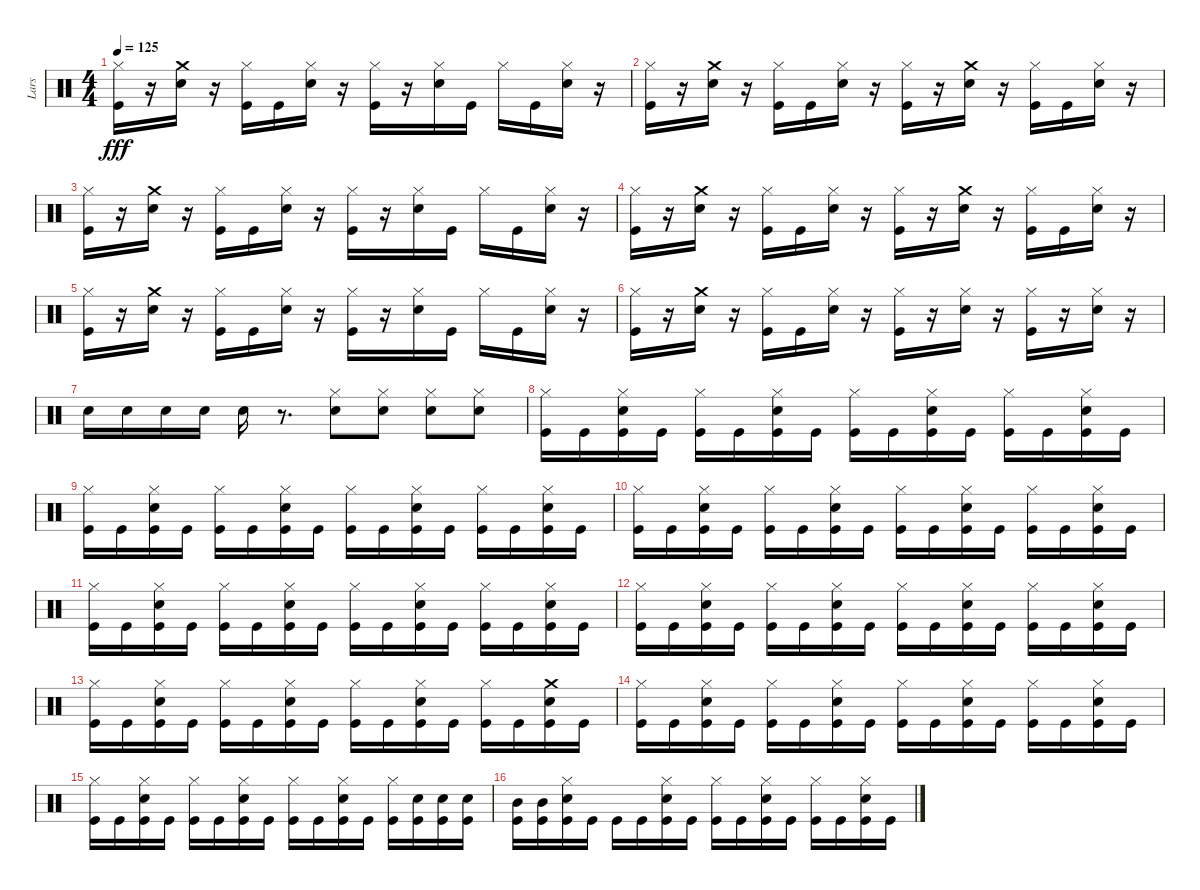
\track ("Lars" "Lars") {instrument percussion bank 102}
\staff {score}
\articulation defaults
\ts (4 4)
\tempo 125
\clef neutral
\ks c
("Hi-Hat (closed)" "Kick (hit)").16{dy fff} r.16 ("Crash medium (hit)" "Snare (hit) 2").16 r.16 ("Kick (hit)" "Hi-Hat (closed)").16 "Kick (hit)".16 ("Snare (hit) 2" "Hi-Hat (closed)").16 r.16 ("Hi-Hat (closed)" "Kick (hit)").16 r.16 ("Snare (hit) 2" "Hi-Hat (closed)").16 "Kick (hit)".16 "Hi-Hat (closed)".16 "Kick (hit)".16 ("Hi-Hat (closed)" "Snare (hit) 2").16 r.16 |
("Hi-Hat (closed)" "Kick (hit)").16 r.16 ("Crash medium (hit)" "Snare (hit) 2").16 r.16 ("Kick (hit)" "Hi-Hat (closed)").16 "Kick (hit)".16 ("Snare (hit) 2" "Hi-Hat (closed)").16 r.16 ("Hi-Hat (closed)" "Kick (hit)").16 r.16 ("Crash medium (hit)" "Snare (hit) 2").16 r.16 ("Hi-Hat (closed)" "Kick (hit)").16 "Kick (hit)".16 ("Hi-Hat (closed)" "Snare (hit) 2").16 r.16 |
("Hi-Hat (closed)" "Kick (hit)").16 r.16 ("Crash medium (hit)" "Snare (hit) 2").16 r.16 ("Kick (hit)" "Hi-Hat (closed)").16 "Kick (hit)".16 ("Snare (hit) 2" "Hi-Hat (closed)").16 r.16 ("Hi-Hat (closed)" "Kick (hit)").16 r.16 ("Snare (hit) 2" "Hi-Hat (closed)").16 "Kick (hit)".16 "Hi-Hat (closed)".16 "Kick (hit)".16 ("Hi-Hat (closed)" "Snare (hit) 2").16 r.16 |
("Hi-Hat (closed)" "Kick (hit)").16 r.16 ("Crash medium (hit)" "Snare (hit) 2").16 r.16 ("Kick (hit)" "Hi-Hat (closed)").16 "Kick (hit)".16 ("Snare (hit) 2" "Hi-Hat (closed)").16 r.16 ("Hi-Hat (closed)" "Kick (hit)").16 r.16 ("Crash medium (hit)" "Snare (hit) 2").16 r.16 ("Hi-Hat (closed)" "Kick (hit)").16 "Kick (hit)".16 ("Hi-Hat (closed)" "Snare (hit) 2").16 r.16 |
("Hi-Hat (closed)" "Kick (hit)").16 r.16 ("Crash medium (hit)" "Snare (hit) 2").16 r.16 ("Kick (hit)" "Hi-Hat (closed)").16 "Kick (hit)".16 ("Snare (hit) 2" "Hi-Hat (closed)").16 r.16 ("Hi-Hat (closed)" "Kick (hit)").16 r.16 ("Snare (hit) 2" "Hi-Hat (closed)").16 "Kick (hit)".16 "Hi-Hat (closed)".16 "Kick (hit)".16 ("Hi-Hat (closed)" "Snare (hit) 2").16 r.16 |
("Hi-Hat (closed)" "Kick (hit)").16 r.16 ("Crash medium (hit)" "Snare (hit) 2").16 r.16 ("Kick (hit)" "Hi-Hat (closed)").16 "Kick (hit)".16 ("Snare (hit) 2" "Hi-Hat (closed)").16 r.16 ("Hi-Hat (closed)" "Kick (hit)").16 r.16 ("Hi-Hat (closed)" "Snare (hit) 2").16 r.16 ("Hi-Hat (closed)" "Kick (hit)").16 r.16 ("Hi-Hat (closed)" "Snare (hit) 2").16 r.16 |
"Snare (hit) 2".16 "Snare (hit) 2".16 "Snare (hit) 2".16 "Snare (hit) 2".16 "Snare (hit) 2".16 r.8{d} ("Hi-Hat (closed)" "Snare (hit) 2").8 ("Hi-Hat (closed)" "Snare (hit) 2").8 ("Hi-Hat (closed)" "Snare (hit) 2").8 ("Hi-Hat (closed)" "Snare (hit) 2").8 |
("Kick (hit)" "Hi-Hat (closed)").16 "Kick (hit)".16 ("Kick (hit)" "Snare (hit) 2" "Hi-Hat (closed)").16 "Kick (hit)".16 ("Kick (hit)" "Hi-Hat (closed)").16 "Kick (hit)".16 ("Kick (hit)" "Snare (hit) 2" "Hi-Hat (closed)").16 "Kick (hit)".16 ("Kick (hit)" "Hi-Hat (closed)").16 "Kick (hit)".16 ("Kick (hit)" "Snare (hit) 2" "Hi-Hat (closed)").16 "Kick (hit)".16 ("Kick (hit)" "Hi-Hat (closed)").16 "Kick (hit)".16 ("Kick (hit)" "Snare (hit) 2" "Hi-Hat (closed)").16 "Kick (hit)".16 |
("Kick (hit)" "Hi-Hat (closed)").16 "Kick (hit)".16 ("Kick (hit)" "Snare (hit) 2" "Hi-Hat (closed)").16 "Kick (hit)".16 ("Kick (hit)" "Hi-Hat (closed)").16 "Kick (hit)".16 ("Kick (hit)" "Snare (hit) 2" "Hi-Hat (closed)").16 "Kick (hit)".16 ("Kick (hit)" "Hi-Hat (closed)").16 "Kick (hit)".16 ("Kick (hit)" "Snare (hit) 2" "Hi-Hat (closed)").16 "Kick (hit)".16 ("Kick (hit)" "Hi-Hat (closed)").16 "Kick (hit)".16 ("Kick (hit)" "Snare (hit) 2" "Hi-Hat (closed)").16 "Kick (hit)".16 |
("Kick (hit)" "Hi-Hat (closed)").16 "Kick (hit)".16 ("Kick (hit)" "Snare (hit) 2" "Hi-Hat (closed)").16 "Kick (hit)".16 ("Kick (hit)" "Hi-Hat (closed)").16 "Kick (hit)".16 ("Kick (hit)" "Snare (hit) 2" "Hi-Hat (closed)").16 "Kick (hit)".16 ("Kick (hit)" "Hi-Hat (closed)").16 "Kick (hit)".16 ("Kick (hit)" "Snare (hit) 2" "Hi-Hat (closed)").16 "Kick (hit)".16 ("Kick (hit)" "Hi-Hat (closed)").16 "Kick (hit)".16 ("Kick (hit)" "Snare (hit) 2" "Hi-Hat (closed)").16 "Kick (hit)".16 |
("Kick (hit)" "Hi-Hat (closed)").16 "Kick (hit)".16 ("Kick (hit)" "Snare (hit) 2" "Hi-Hat (closed)").16 "Kick (hit)".16 ("Kick (hit)" "Hi-Hat (closed)").16 "Kick (hit)".16 ("Kick (hit)" "Snare (hit) 2" "Hi-Hat (closed)").16 "Kick (hit)".16 ("Kick (hit)" "Hi-Hat (closed)").16 "Kick (hit)".16 ("Kick (hit)" "Snare (hit) 2" "Hi-Hat (closed)").16 "Kick (hit)".16 ("Kick (hit)" "Hi-Hat (closed)").16 "Kick (hit)".16 ("Kick (hit)" "Snare (hit) 2" "Hi-Hat (closed)").16 "Kick (hit)".16 |
("Kick (hit)" "Hi-Hat (closed)").16 "Kick (hit)".16 ("Kick (hit)" "Snare (hit) 2" "Hi-Hat (closed)").16 "Kick (hit)".16 ("Kick (hit)" "Hi-Hat (closed)").16 "Kick (hit)".16 ("Kick (hit)" "Snare (hit) 2" "Hi-Hat (closed)").16 "Kick (hit)".16 ("Kick (hit)" "Hi-Hat (closed)").16 "Kick (hit)".16 ("Kick (hit)" "Snare (hit) 2" "Hi-Hat (closed)").16 "Kick (hit)".16 ("Kick (hit)" "Hi-Hat (closed)").16 "Kick (hit)".16 ("Kick (hit)" "Snare (hit) 2" "Hi-Hat (closed)").16 "Kick (hit)".16 |
("Kick (hit)" "Hi-Hat (closed)").16 "Kick (hit)".16 ("Kick (hit)" "Snare (hit) 2" "Hi-Hat (closed)").16 "Kick (hit)".16 ("Kick (hit)" "Hi-Hat (closed)").16 "Kick (hit)".16 ("Kick (hit)" "Snare (hit) 2" "Hi-Hat (closed)").16 "Kick (hit)".16 ("Kick (hit)" "Hi-Hat (closed)").16 "Kick (hit)".16 ("Kick (hit)" "Snare (hit) 2" "Hi-Hat (closed)").16 "Kick (hit)".16 ("Kick (hit)" "Hi-Hat (closed)").16 "Kick (hit)".16 ("Crash medium (hit)" "Kick (hit)" "Snare (hit) 2").16 "Kick (hit)".16 |
("Kick (hit)" "Hi-Hat (closed)").16 "Kick (hit)".16 ("Kick (hit)" "Snare (hit) 2" "Hi-Hat (closed)").16 "Kick (hit)".16 ("Kick (hit)" "Hi-Hat (closed)").16 "Kick (hit)".16 ("Kick (hit)" "Snare (hit) 2" "Hi-Hat (closed)").16 "Kick (hit)".16 ("Kick (hit)" "Hi-Hat (closed)").16 "Kick (hit)".16 ("Kick (hit)" "Snare (hit) 2" "Hi-Hat (closed)").16 "Kick (hit)".16 ("Kick (hit)" "Hi-Hat (closed)").16 "Kick (hit)".16 ("Kick (hit)" "Snare (hit) 2" "Hi-Hat (closed)").16 "Kick (hit)".16 |
("Kick (hit)" "Hi-Hat (closed)").16 "Kick (hit)".16 ("Kick (hit)" "Snare (hit) 2" "Hi-Hat (closed)").16 "Kick (hit)".16 ("Kick (hit)" "Hi-Hat (closed)").16 "Kick (hit)".16 ("Kick (hit)" "Snare (hit) 2" "Hi-Hat (closed)").16 "Kick (hit)".16 ("Kick (hit)" "Hi-Hat (closed)").16 "Kick (hit)".16 ("Kick (hit)" "Snare (hit) 2" "Hi-Hat (closed)").16 "Kick (hit)".16 ("Hi-Hat (closed)" "Kick (hit)").16 ("Snare (hit) 2" "Kick (hit)").16 ("Snare (hit) 2" "Kick (hit)").16 ("Snare (hit) 2" "Kick (hit)").16 |
("Mid Tom (hit)" "Kick (hit)").16 ("Mid Tom (hit)" "Kick (hit)").16 ("Hi-Hat (closed)" "Snare (hit) 2" "Kick (hit)").16 "Kick (hit)".16 "Kick (hit)".16 "Kick (hit)".16 ("Kick (hit)" "Snare (hit) 2" "Hi-Hat (closed)").16 "Kick (hit)".16 ("Kick (hit)" "Hi-Hat (closed)").16 "Kick (hit)".16 ("Kick (hit)" "Snare (hit) 2" "Hi-Hat (closed)").16 "Kick (hit)".16 ("Kick (hit)" "Hi-Hat (closed)").16 "Kick (hit)".16 ("Kick (hit)" "Snare (hit) 2" "Hi-Hat (closed)").16 "Kick (hit)".16
